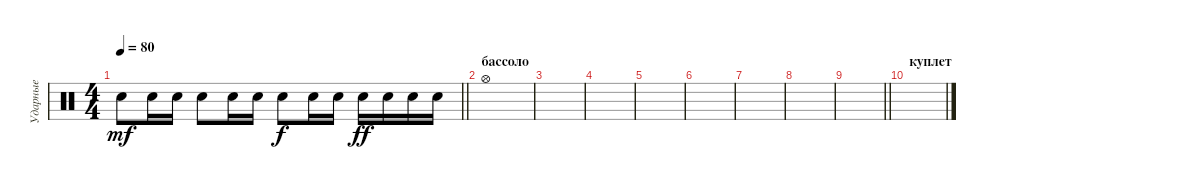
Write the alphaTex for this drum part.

\track ("Ударные" "Ударные") {instrument percussion}
\staff {score}
\articulation defaults
\ts (4 4)
\tempo 80
\clef neutral
\barLineRight lightlight
\ks c "Snare (hit) 2".8{dy mf} "Snare (hit) 2".16 "Snare (hit) 2".16 "Snare (hit) 2".8 "Snare (hit) 2".16 "Snare (hit) 2".16 "Snare (hit) 2".8{dy f} "Snare (hit) 2".16 "Snare (hit) 2".16 "Snare (hit) 2".16{dy ff} "Snare (hit) 2".16 "Snare (hit) 2".16 "Snare (hit) 2".16
|
\section ("" "бассоло")
"Hi-Hat (open)".1 |
|
|
|
|
|
|
\barLineRight lightlight
|
\section ("" "куплет")
